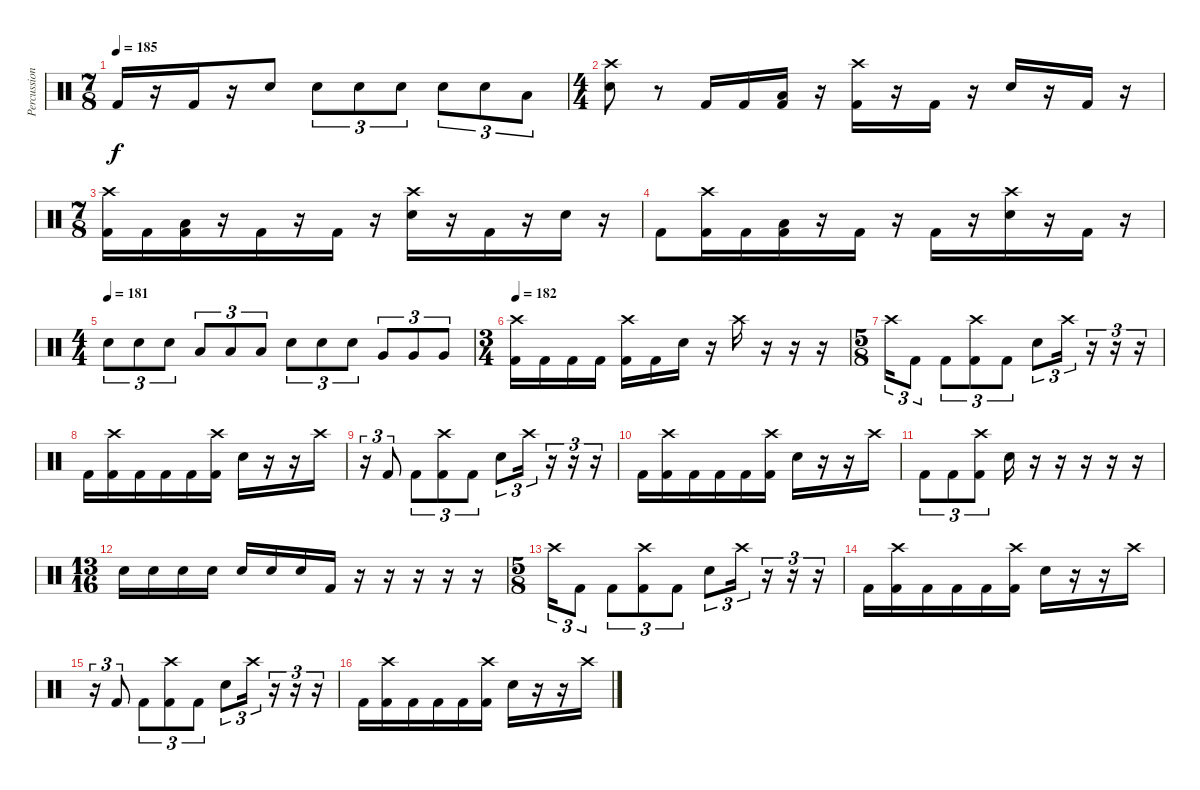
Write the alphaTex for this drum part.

\track ("Percussion" "Percussion") {instrument percussion}
\staff {score}
\articulation defaults
\ts (7 8)
\tempo 185
\clef neutral
\ks c "Kick (hit) 2".16{dy f}
r.16 "Kick (hit) 2".16 r.16 "Electric Snare (hit)".8 "Electric Snare (hit)".8{tu (3 2)} "Electric Snare (hit)".8{tu (3 2)} "Electric Snare (hit)".8{tu (3 2)} "Electric Snare (hit)".8{tu (3 2)} "Electric Snare (hit)".8{tu (3 2)} "Low Tom (hit)".8{tu (3 2)} |
\ts (4 4)
("Crash high (hit)" "Electric Snare (hit)").8 r.8 "Kick (hit) 2".16 "Kick (hit) 2".16 ("Low Tom (hit)" "Kick (hit) 2").16 r.16 ("Crash high (hit)" "Kick (hit) 2").16 r.16 "Kick (hit) 2".16 r.16 "Electric Snare (hit)".16 r.16 "Kick (hit) 2".16 r.16 |
\ts (7 8)
("Crash high (hit)" "Kick (hit) 2").16 "Kick (hit) 2".16 ("Low Tom (hit)" "Kick (hit) 2").16 r.16 "Kick (hit) 2".16 r.16 "Kick (hit) 2".16 r.16 ("Crash high (hit)" "Electric Snare (hit)").16 r.16 "Kick (hit) 2".16 r.16 "Electric Snare (hit)".16 r.16 |
"Kick (hit) 2".8 ("Crash high (hit)" "Kick (hit) 2").16 "Kick (hit) 2".16 ("Low Tom (hit)" "Kick (hit) 2").16 r.16 "Kick (hit) 2".16 r.16 "Kick (hit) 2".16 r.16 ("Crash high (hit)" "Electric Snare (hit)").16 r.16 "Kick (hit) 2".16 r.16 |
\ts (4 4)
\tempo (181)
"Electric Snare (hit)".8{tu (3 2)} "Electric Snare (hit)".8{tu (3 2)} "Electric Snare (hit)".8{tu (3 2)} "Low Tom (hit)".8{tu (3 2)} "Low Tom (hit)".8{tu (3 2)} "Low Tom (hit)".8{tu (3 2)} "Electric Snare (hit)".8{tu (3 2)} "Electric Snare (hit)".8{tu (3 2)} "Electric Snare (hit)".8{tu (3 2)} "Very Low Tom (hit)".8{tu (3 2)} "Very Low Tom (hit)".8{tu (3 2)} "Very Low Tom (hit)".8{tu (3 2)} |
\ts (3 4)
\tempo 182
("Crash high (hit)" "Kick (hit) 2").16 "Kick (hit) 2".16 "Kick (hit) 2".16 "Kick (hit) 2".16 ("Crash high (hit)" "Kick (hit) 2").16 "Kick (hit) 2".16 "Electric Snare (hit)".16 r.16 "Crash high (hit)".16 r.16 r.16 r.16 |
\ts (5 8)
"Crash high (hit)".16{tu (3 2)} "Kick (hit) 2".8{tu (3 2)} "Kick (hit) 2".8{tu (3 2)} ("Crash high (hit)" "Kick (hit) 2").8{tu (3 2)} "Kick (hit) 2".8{tu (3 2)} "Electric Snare (hit)".8{tu (3 2)} "Crash high (hit)".16{tu (3 2)} r.16{tu (3 2)} r.16{tu (3 2)} r.16{tu (3 2)} |
"Kick (hit) 2".16 ("Crash high (hit)" "Kick (hit) 2").16 "Kick (hit) 2".16 "Kick (hit) 2".16 "Kick (hit) 2".16 ("Crash high (hit)" "Kick (hit) 2").16 "Electric Snare (hit)".16 r.16 r.16 "Crash high (hit)".16 |
r.16{tu (3 2)} "Kick (hit) 2".8{tu (3 2)} "Kick (hit) 2".8{tu (3 2)} ("Crash high (hit)" "Kick (hit) 2").8{tu (3 2)} "Kick (hit) 2".8{tu (3 2)} "Electric Snare (hit)".8{tu (3 2)} "Crash high (hit)".16{tu (3 2)} r.16{tu (3 2)} r.16{tu (3 2)} r.16{tu (3 2)} |
"Kick (hit) 2".16 ("Crash high (hit)" "Kick (hit) 2").16 "Kick (hit) 2".16 "Kick (hit) 2".16 "Kick (hit) 2".16 ("Crash high (hit)" "Kick (hit) 2").16 "Electric Snare (hit)".16 r.16 r.16 "Crash high (hit)".16 |
"Kick (hit) 2".8{tu (3 2)} "Kick (hit) 2".8{tu (3 2)} ("Crash high (hit)" "Kick (hit) 2").8{tu (3 2)} "Electric Snare (hit)".16 r.16 r.16 r.16 r.16 r.16 |
\ts (13 16)
"Electric Snare (hit)".16 "Electric Snare (hit)".16 "Electric Snare (hit)".16 "Electric Snare (hit)".16 "Electric Snare (hit)".16 "Electric Snare (hit)".16 "Electric Snare (hit)".16 "Kick (hit) 2".16 r.16 r.16 r.16 r.16 r.16 |
\ts (5 8)
"Crash high (hit)".16{tu (3 2)} "Kick (hit) 2".8{tu (3 2)} "Kick (hit) 2".8{tu (3 2)} ("Crash high (hit)" "Kick (hit) 2").8{tu (3 2)} "Kick (hit) 2".8{tu (3 2)} "Electric Snare (hit)".8{tu (3 2)} "Crash high (hit)".16{tu (3 2)} r.16{tu (3 2)} r.16{tu (3 2)} r.16{tu (3 2)} |
"Kick (hit) 2".16 ("Crash high (hit)" "Kick (hit) 2").16 "Kick (hit) 2".16 "Kick (hit) 2".16 "Kick (hit) 2".16 ("Crash high (hit)" "Kick (hit) 2").16 "Electric Snare (hit)".16 r.16 r.16 "Crash high (hit)".16 |
r.16{tu (3 2)} "Kick (hit) 2".8{tu (3 2)} "Kick (hit) 2".8{tu (3 2)} ("Crash high (hit)" "Kick (hit) 2").8{tu (3 2)} "Kick (hit) 2".8{tu (3 2)} "Electric Snare (hit)".8{tu (3 2)} "Crash high (hit)".16{tu (3 2)} r.16{tu (3 2)} r.16{tu (3 2)} r.16{tu (3 2)} |
"Kick (hit) 2".16 ("Crash high (hit)" "Kick (hit) 2").16 "Kick (hit) 2".16 "Kick (hit) 2".16 "Kick (hit) 2".16 ("Crash high (hit)" "Kick (hit) 2").16 "Electric Snare (hit)".16 r.16 r.16 "Crash high (hit)".16
